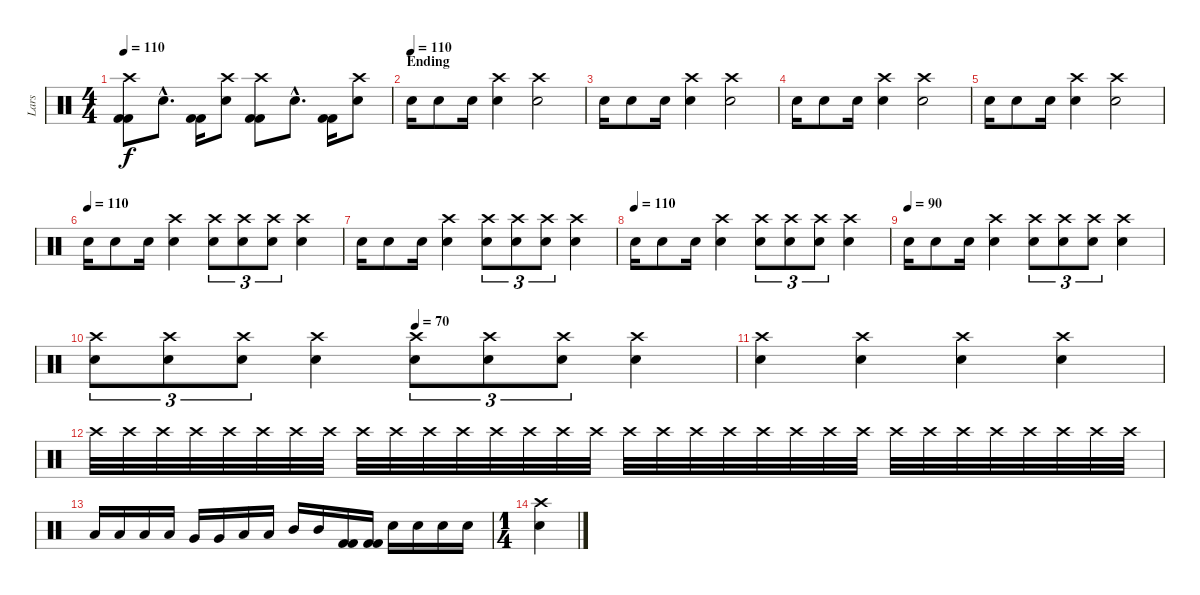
\track ("Lars" "Lars") {instrument percussion}
\staff {score}
\articulation defaults
\ts (4 4)
\tempo 110
\clef neutral
\ks c
("Crash high (hit)" "Kick (hit) 2" "Kick (hit) 2").8{dy f} "Snare (hit) 2"{hac}.8{d} ("Kick (hit) 2" "Kick (hit) 2").16 ("Crash high (hit)" "Snare (hit) 2").8 ("Crash high (hit)" "Kick (hit) 2" "Kick (hit) 2").8 "Snare (hit) 2"{hac}.8{d} ("Kick (hit) 2" "Kick (hit) 2").16 ("Snare (hit) 2" "Crash high (hit)").8 |
\section ("" "Ending")
\tempo (110)
"Snare (hit) 2".16 "Snare (hit) 2".8 "Snare (hit) 2".16 ("Crash high (hit)" "Snare (hit) 2").4 ("Crash high (hit)" "Snare (hit) 2").2 |
"Snare (hit) 2".16 "Snare (hit) 2".8 "Snare (hit) 2".16 ("Crash high (hit)" "Snare (hit) 2").4 ("Crash high (hit)" "Snare (hit) 2").2 |
"Snare (hit) 2".16 "Snare (hit) 2".8 "Snare (hit) 2".16 ("Crash high (hit)" "Snare (hit) 2").4 ("Crash high (hit)" "Snare (hit) 2").2 |
"Snare (hit) 2".16 "Snare (hit) 2".8 "Snare (hit) 2".16 ("Crash high (hit)" "Snare (hit) 2").4 ("Crash high (hit)" "Snare (hit) 2").2 |
\tempo (110)
"Snare (hit) 2".16 "Snare (hit) 2".8 "Snare (hit) 2".16 ("Crash high (hit)" "Snare (hit) 2").4 ("Crash high (hit)" "Snare (hit) 2").8{tu (3 2)} ("Crash high (hit)" "Snare (hit) 2").8{tu (3 2)} ("Crash high (hit)" "Snare (hit) 2").8{tu (3 2)} ("Crash high (hit)" "Snare (hit) 2").4 |
"Snare (hit) 2".16 "Snare (hit) 2".8 "Snare (hit) 2".16 ("Crash high (hit)" "Snare (hit) 2").4 ("Crash high (hit)" "Snare (hit) 2").8{tu (3 2)} ("Crash high (hit)" "Snare (hit) 2").8{tu (3 2)} ("Crash high (hit)" "Snare (hit) 2").8{tu (3 2)} ("Crash high (hit)" "Snare (hit) 2").4 |
\tempo (110)
"Snare (hit) 2".16 "Snare (hit) 2".8 "Snare (hit) 2".16 ("Crash high (hit)" "Snare (hit) 2").4 ("Crash high (hit)" "Snare (hit) 2").8{tu (3 2)} ("Crash high (hit)" "Snare (hit) 2").8{tu (3 2)} ("Crash high (hit)" "Snare (hit) 2").8{tu (3 2)} ("Crash high (hit)" "Snare (hit) 2").4 |
\tempo (90)
"Snare (hit) 2".16 "Snare (hit) 2".8 "Snare (hit) 2".16 ("Crash high (hit)" "Snare (hit) 2").4 ("Crash high (hit)" "Snare (hit) 2").8{tu (3 2)} ("Crash high (hit)" "Snare (hit) 2").8{tu (3 2)} ("Crash high (hit)" "Snare (hit) 2").8{tu (3 2)} ("Crash high (hit)" "Snare (hit) 2").4 |
\tempo (70 0.5)
("Crash high (hit)" "Snare (hit) 2").8{tu (3 2)} ("Crash high (hit)" "Snare (hit) 2").8{tu (3 2)} ("Crash high (hit)" "Snare (hit) 2").8{tu (3 2)} ("Crash high (hit)" "Snare (hit) 2").4 ("Crash high (hit)" "Snare (hit) 2").8{tu (3 2)} ("Crash high (hit)" "Snare (hit) 2").8{tu (3 2)} ("Crash high (hit)" "Snare (hit) 2").8{tu (3 2)} ("Crash high (hit)" "Snare (hit) 2").4 |
("Crash high (hit)" "Snare (hit) 2").4 ("Crash high (hit)" "Snare (hit) 2").4 ("Crash high (hit)" "Snare (hit) 2").4 ("Crash high (hit)" "Snare (hit) 2").4 |
"Crash high (hit)".32 "Crash high (hit)".32 "Crash high (hit)".32 "Crash high (hit)".32 "Crash high (hit)".32 "Crash high (hit)".32 "Crash high (hit)".32 "Crash high (hit)".32 "Crash high (hit)".32 "Crash high (hit)".32 "Crash high (hit)".32 "Crash high (hit)".32 "Crash high (hit)".32 "Crash high (hit)".32 "Crash high (hit)".32 "Crash high (hit)".32 "Crash high (hit)".32 "Crash high (hit)".32 "Crash high (hit)".32 "Crash high (hit)".32 "Crash high (hit)".32 "Crash high (hit)".32 "Crash high (hit)".32 "Crash high (hit)".32 "Crash high (hit)".32 "Crash high (hit)".32 "Crash high (hit)".32 "Crash high (hit)".32 "Crash high (hit)".32 "Crash high (hit)".32 "Crash high (hit)".32 "Crash high (hit)".32 |
"Low Tom (hit)".16 "Low Tom (hit)".16 "Low Tom (hit)".16 "Low Tom (hit)".16 "Very Low Tom (hit)".16 "Very Low Tom (hit)".16 "Low Floor Tom (hit)".16 "Low Floor Tom (hit)".16 "Mid Tom (hit)".16 "Mid Tom (hit)".16 ("Kick (hit) 2" "Kick (hit) 2").16 ("Kick (hit) 2" "Kick (hit) 2").16 "Snare (hit) 2".16 "Snare (hit) 2".16 "Snare (hit) 2".16 "Snare (hit) 2".16 |
\ts (1 4)
("Snare (hit) 2" "Crash high (hit)").4
